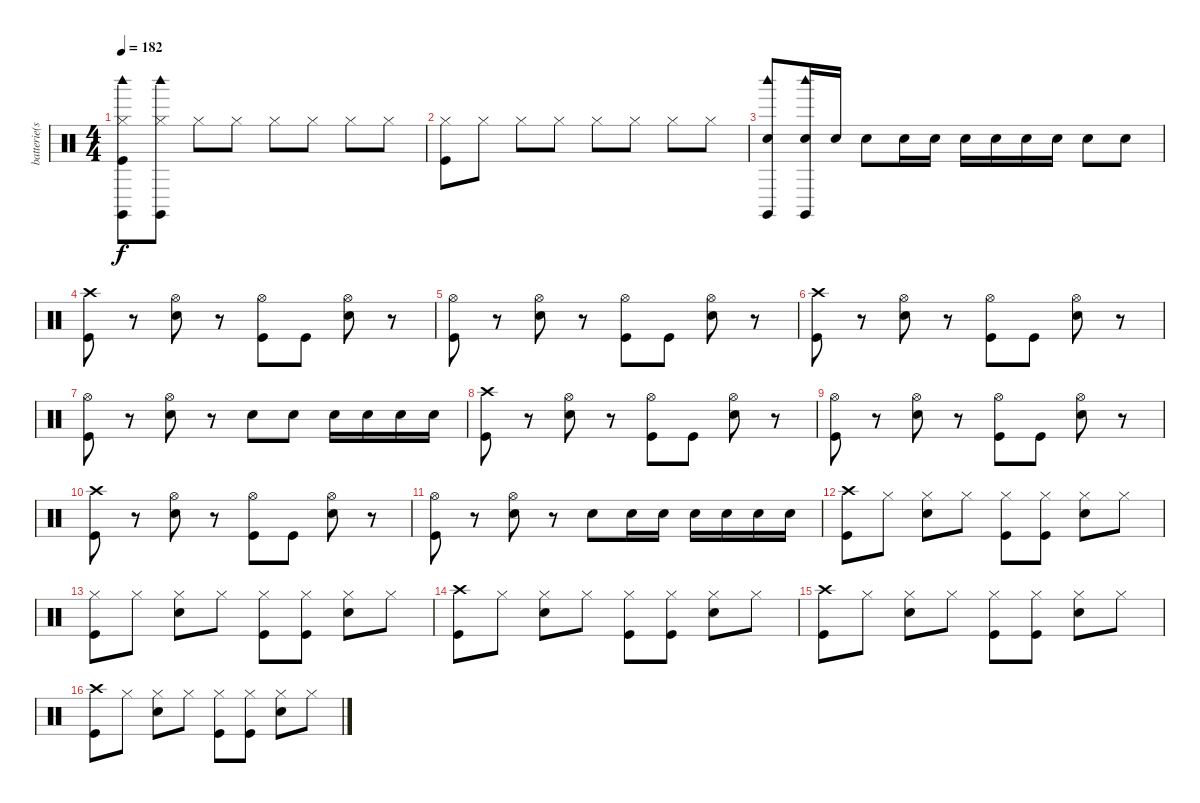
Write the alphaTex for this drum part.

\track ("batterie(scott)" "batterie(s") {instrument percussion}
\staff {score}
\articulation defaults
\ts (4 4)
\tempo 182
\clef neutral
\ks c
("Hi-Hat (closed)" "Claves (hit)" "Woodblock high (hit)" "Kick (hit)").8{dy f} ("Hi-Hat (closed)" "Claves (hit)" "Woodblock high (hit)").8 "Hi-Hat (closed)".8 "Hi-Hat (closed)".8 "Hi-Hat (closed)".8 "Hi-Hat (closed)".8 "Hi-Hat (closed)".8 "Hi-Hat (closed)".8 |
("Hi-Hat (closed)" "Kick (hit)").8 "Hi-Hat (closed)".8 "Hi-Hat (closed)".8 "Hi-Hat (closed)".8 "Hi-Hat (closed)".8 "Hi-Hat (closed)".8 "Hi-Hat (closed)".8 "Hi-Hat (closed)".8 |
("Claves (hit)" "Woodblock high (hit)" "Snare (hit) 2").8 ("Claves (hit)" "Woodblock high (hit)" "Snare (hit) 2").16 "Snare (hit) 2".16 "Snare (hit) 2".8 "Snare (hit) 2".16 "Snare (hit) 2".16 "Snare (hit) 2".16 "Snare (hit) 2".16 "Snare (hit) 2".16 "Snare (hit) 2".16 "Snare (hit) 2".8 "Snare (hit) 2".8 |
("Crash high (hit)" "Kick (hit)").8 r.8 ("Hi-Hat (open)" "Snare (hit) 2").8 r.8 ("Hi-Hat (open)" "Kick (hit)").8 "Kick (hit)".8 ("Hi-Hat (open)" "Snare (hit) 2").8 r.8 |
("Hi-Hat (open)" "Kick (hit)").8 r.8 ("Hi-Hat (open)" "Snare (hit) 2").8 r.8 ("Hi-Hat (open)" "Kick (hit)").8 "Kick (hit)".8 ("Hi-Hat (open)" "Snare (hit) 2").8 r.8 |
("Crash high (hit)" "Kick (hit)").8 r.8 ("Hi-Hat (open)" "Snare (hit) 2").8 r.8 ("Hi-Hat (open)" "Kick (hit)").8 "Kick (hit)".8 ("Hi-Hat (open)" "Snare (hit) 2").8 r.8 |
("Hi-Hat (open)" "Kick (hit)").8 r.8 ("Hi-Hat (open)" "Snare (hit) 2").8 r.8 "Snare (hit) 2".8 "Snare (hit) 2".8 "Snare (hit) 2".16 "Snare (hit) 2".16 "Snare (hit) 2".16 "Snare (hit) 2".16 |
("Crash high (hit)" "Kick (hit)").8 r.8 ("Hi-Hat (open)" "Snare (hit) 2").8 r.8 ("Hi-Hat (open)" "Kick (hit)").8 "Kick (hit)".8 ("Hi-Hat (open)" "Snare (hit) 2").8 r.8 |
("Hi-Hat (open)" "Kick (hit)").8 r.8 ("Hi-Hat (open)" "Snare (hit) 2").8 r.8 ("Hi-Hat (open)" "Kick (hit)").8 "Kick (hit)".8 ("Hi-Hat (open)" "Snare (hit) 2").8 r.8 |
("Crash high (hit)" "Kick (hit)").8 r.8 ("Hi-Hat (open)" "Snare (hit) 2").8 r.8 ("Hi-Hat (open)" "Kick (hit)").8 "Kick (hit)".8 ("Hi-Hat (open)" "Snare (hit) 2").8 r.8 |
("Hi-Hat (open)" "Kick (hit)").8 r.8 ("Hi-Hat (open)" "Snare (hit) 2").8 r.8 "Snare (hit) 2".8 "Snare (hit) 2".16 "Snare (hit) 2".16 "Snare (hit) 2".16 "Snare (hit) 2".16 "Snare (hit) 2".16 "Snare (hit) 2".16 |
("Crash high (hit)" "Kick (hit)").8 "Hi-Hat (closed)".8 ("Hi-Hat (closed)" "Snare (hit) 2").8 "Hi-Hat (closed)".8 ("Hi-Hat (closed)" "Kick (hit)").8 ("Hi-Hat (closed)" "Kick (hit)").8 ("Hi-Hat (closed)" "Snare (hit) 2").8 "Hi-Hat (closed)".8 |
("Hi-Hat (closed)" "Kick (hit)").8 "Hi-Hat (closed)".8 ("Hi-Hat (closed)" "Snare (hit) 2").8 "Hi-Hat (closed)".8 ("Hi-Hat (closed)" "Kick (hit)").8 ("Hi-Hat (closed)" "Kick (hit)").8 ("Hi-Hat (closed)" "Snare (hit) 2").8 "Hi-Hat (closed)".8 |
("Crash high (hit)" "Kick (hit)").8 "Hi-Hat (closed)".8 ("Hi-Hat (closed)" "Snare (hit) 2").8 "Hi-Hat (closed)".8 ("Hi-Hat (closed)" "Kick (hit)").8 ("Hi-Hat (closed)" "Kick (hit)").8 ("Hi-Hat (closed)" "Snare (hit) 2").8 "Hi-Hat (closed)".8 |
("Crash high (hit)" "Kick (hit)").8 "Hi-Hat (closed)".8 ("Hi-Hat (closed)" "Snare (hit) 2").8 "Hi-Hat (closed)".8 ("Hi-Hat (closed)" "Kick (hit)").8 ("Hi-Hat (closed)" "Kick (hit)").8 ("Hi-Hat (closed)" "Snare (hit) 2").8 "Hi-Hat (closed)".8 |
("Crash high (hit)" "Kick (hit)").8 "Hi-Hat (closed)".8 ("Hi-Hat (closed)" "Snare (hit) 2").8 "Hi-Hat (closed)".8 ("Hi-Hat (closed)" "Kick (hit)").8 ("Hi-Hat (closed)" "Kick (hit)").8 ("Hi-Hat (closed)" "Snare (hit) 2").8 "Hi-Hat (closed)".8
